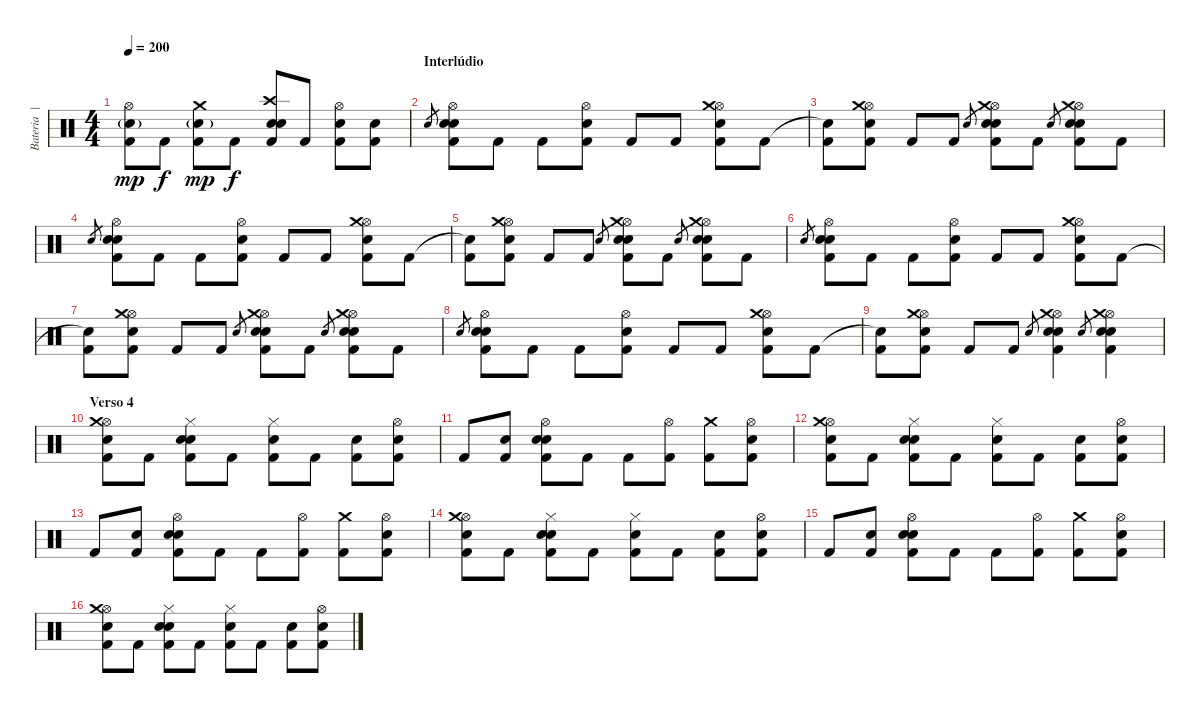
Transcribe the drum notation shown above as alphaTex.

\track ("Bateria  | Nô" "Bateria  |") {instrument percussion}
\staff {score}
\articulation defaults
\ts (4 4)
\tempo 200
\clef neutral
\ks c
("Hi-Hat (open)" "Electric Snare (hit)"{g} "Kick (hit) 2").8{dy mp} "Kick (hit) 2".8{dy f} ("Crash medium (hit)" "Electric Snare (hit)"{g} "Kick (hit) 2").8{dy mp} "Kick (hit) 2".8{dy f} ("Crash high (hit)" "Electric Snare (hit)" "Snare (hit) 2" "Kick (hit) 2").8 "Kick (hit) 2".8 ("Hi-Hat (open)" "Electric Snare (hit)" "Kick (hit) 2").8 ("Electric Snare (hit)" "Kick (hit) 2").8 |
\section ("" "Interlúdio")
"Electric Snare (hit)".8{gr} ("Hi-Hat (open)" "Snare (hit) 2" "Electric Snare (hit)" "Kick (hit) 2").8 "Kick (hit) 2".8 "Kick (hit) 2".8 ("Hi-Hat (open)" "Snare (hit) 2" "Kick (hit) 2").8 "Kick (hit) 2".8 "Kick (hit) 2".8 ("Hi-Hat (open)" "Crash medium (hit)" "Snare (hit) 2" "Kick (hit) 2").8 "Kick (hit) 2".8 |
("Snare (hit)"{t} "Kick (hit) 2").8 ("Hi-Hat (open)" "Crash medium (hit)" "Snare (hit) 2" "Kick (hit) 2").8 "Kick (hit) 2".8 "Kick (hit) 2".8 "Electric Snare (hit)".8{gr} ("Hi-Hat (open)" "Crash medium (hit)" "Snare (hit) 2" "Electric Snare (hit)" "Kick (hit) 2").8 "Kick (hit) 2".8 "Electric Snare (hit)".8{gr} ("Hi-Hat (open)" "Crash medium (hit)" "Snare (hit) 2" "Electric Snare (hit)" "Kick (hit) 2").8 "Kick (hit) 2".8 |
"Electric Snare (hit)".8{gr} ("Hi-Hat (open)" "Snare (hit) 2" "Electric Snare (hit)" "Kick (hit) 2").8 "Kick (hit) 2".8 "Kick (hit) 2".8 ("Hi-Hat (open)" "Snare (hit) 2" "Kick (hit) 2").8 "Kick (hit) 2".8 "Kick (hit) 2".8 ("Hi-Hat (open)" "Crash medium (hit)" "Snare (hit) 2" "Kick (hit) 2").8 "Kick (hit) 2".8 |
("Snare (hit)"{t} "Kick (hit) 2").8 ("Hi-Hat (open)" "Crash medium (hit)" "Snare (hit) 2" "Kick (hit) 2").8 "Kick (hit) 2".8 "Kick (hit) 2".8 "Electric Snare (hit)".8{gr} ("Hi-Hat (open)" "Crash medium (hit)" "Snare (hit) 2" "Electric Snare (hit)" "Kick (hit) 2").8 "Kick (hit) 2".8 "Electric Snare (hit)".8{gr} ("Hi-Hat (open)" "Crash medium (hit)" "Snare (hit) 2" "Electric Snare (hit)" "Kick (hit) 2").8 "Kick (hit) 2".8 |
"Electric Snare (hit)".8{gr} ("Hi-Hat (open)" "Snare (hit) 2" "Electric Snare (hit)" "Kick (hit) 2").8 "Kick (hit) 2".8 "Kick (hit) 2".8 ("Hi-Hat (open)" "Snare (hit) 2" "Kick (hit) 2").8 "Kick (hit) 2".8 "Kick (hit) 2".8 ("Hi-Hat (open)" "Crash medium (hit)" "Snare (hit) 2" "Kick (hit) 2").8 "Kick (hit) 2".8 |
("Snare (hit)"{t} "Kick (hit) 2").8 ("Hi-Hat (open)" "Crash medium (hit)" "Snare (hit) 2" "Kick (hit) 2").8 "Kick (hit) 2".8 "Kick (hit) 2".8 "Electric Snare (hit)".8{gr} ("Hi-Hat (open)" "Crash medium (hit)" "Snare (hit) 2" "Electric Snare (hit)" "Kick (hit) 2").8 "Kick (hit) 2".8 "Electric Snare (hit)".8{gr} ("Hi-Hat (open)" "Crash medium (hit)" "Snare (hit) 2" "Electric Snare (hit)" "Kick (hit) 2").8 "Kick (hit) 2".8 |
"Electric Snare (hit)".8{gr} ("Hi-Hat (open)" "Snare (hit) 2" "Electric Snare (hit)" "Kick (hit) 2").8 "Kick (hit) 2".8 "Kick (hit) 2".8 ("Hi-Hat (open)" "Snare (hit) 2" "Kick (hit) 2").8 "Kick (hit) 2".8 "Kick (hit) 2".8 ("Hi-Hat (open)" "Crash medium (hit)" "Snare (hit) 2" "Kick (hit) 2").8 "Kick (hit) 2".8 |
("Snare (hit)"{t} "Kick (hit) 2").8 ("Hi-Hat (open)" "Crash medium (hit)" "Snare (hit) 2" "Kick (hit) 2").8 "Kick (hit) 2".8 "Kick (hit) 2".8 "Electric Snare (hit)".8{gr} ("Hi-Hat (open)" "Crash medium (hit)" "Snare (hit) 2" "Electric Snare (hit)" "Kick (hit) 2").4 "Electric Snare (hit)".8{gr} ("Hi-Hat (open)" "Crash medium (hit)" "Snare (hit) 2" "Electric Snare (hit)" "Kick (hit) 2").4 |
\section ("" "Verso 4")
("Hi-Hat (open)" "Crash medium (hit)" "Electric Snare (hit)" "Kick (hit) 2").8 "Kick (hit) 2".8 ("Hi-Hat (closed)" "Snare (hit) 2" "Electric Snare (hit)" "Kick (hit) 2").8 "Kick (hit) 2".8 ("Hi-Hat (closed)" "Electric Snare (hit)" "Kick (hit) 2").8 "Kick (hit) 2".8 ("Electric Snare (hit)" "Kick (hit) 2").8 ("Hi-Hat (open)" "Snare (hit) 2" "Kick (hit) 2").8 |
"Kick (hit) 2".8 ("Electric Snare (hit)" "Kick (hit) 2").8 ("Hi-Hat (open)" "Electric Snare (hit)" "Snare (hit) 2" "Kick (hit) 2").8 "Kick (hit) 2".8 "Kick (hit) 2".8 ("Hi-Hat (open)" "Kick (hit) 2").8 ("Crash medium (hit)" "Kick (hit) 2").8 ("Hi-Hat (open)" "Electric Snare (hit)" "Kick (hit) 2").8 |
("Hi-Hat (open)" "Crash medium (hit)" "Electric Snare (hit)" "Kick (hit) 2").8 "Kick (hit) 2".8 ("Hi-Hat (closed)" "Snare (hit) 2" "Electric Snare (hit)" "Kick (hit) 2").8 "Kick (hit) 2".8 ("Hi-Hat (closed)" "Electric Snare (hit)" "Kick (hit) 2").8 "Kick (hit) 2".8 ("Electric Snare (hit)" "Kick (hit) 2").8 ("Hi-Hat (open)" "Snare (hit) 2" "Kick (hit) 2").8 |
"Kick (hit) 2".8 ("Electric Snare (hit)" "Kick (hit) 2").8 ("Hi-Hat (open)" "Electric Snare (hit)" "Snare (hit) 2" "Kick (hit) 2").8 "Kick (hit) 2".8 "Kick (hit) 2".8 ("Hi-Hat (open)" "Kick (hit) 2").8 ("Crash medium (hit)" "Kick (hit) 2").8 ("Hi-Hat (open)" "Electric Snare (hit)" "Kick (hit) 2").8 |
("Hi-Hat (open)" "Crash medium (hit)" "Electric Snare (hit)" "Kick (hit) 2").8 "Kick (hit) 2".8 ("Hi-Hat (closed)" "Snare (hit) 2" "Electric Snare (hit)" "Kick (hit) 2").8 "Kick (hit) 2".8 ("Hi-Hat (closed)" "Electric Snare (hit)" "Kick (hit) 2").8 "Kick (hit) 2".8 ("Electric Snare (hit)" "Kick (hit) 2").8 ("Hi-Hat (open)" "Snare (hit) 2" "Kick (hit) 2").8 |
"Kick (hit) 2".8 ("Electric Snare (hit)" "Kick (hit) 2").8 ("Hi-Hat (open)" "Electric Snare (hit)" "Snare (hit) 2" "Kick (hit) 2").8 "Kick (hit) 2".8 "Kick (hit) 2".8 ("Hi-Hat (open)" "Kick (hit) 2").8 ("Crash medium (hit)" "Kick (hit) 2").8 ("Hi-Hat (open)" "Electric Snare (hit)" "Kick (hit) 2").8 |
("Hi-Hat (open)" "Crash medium (hit)" "Electric Snare (hit)" "Kick (hit) 2").8 "Kick (hit) 2".8 ("Hi-Hat (closed)" "Snare (hit) 2" "Electric Snare (hit)" "Kick (hit) 2").8 "Kick (hit) 2".8 ("Hi-Hat (closed)" "Electric Snare (hit)" "Kick (hit) 2").8 "Kick (hit) 2".8 ("Electric Snare (hit)" "Kick (hit) 2").8 ("Hi-Hat (open)" "Snare (hit) 2" "Kick (hit) 2").8
